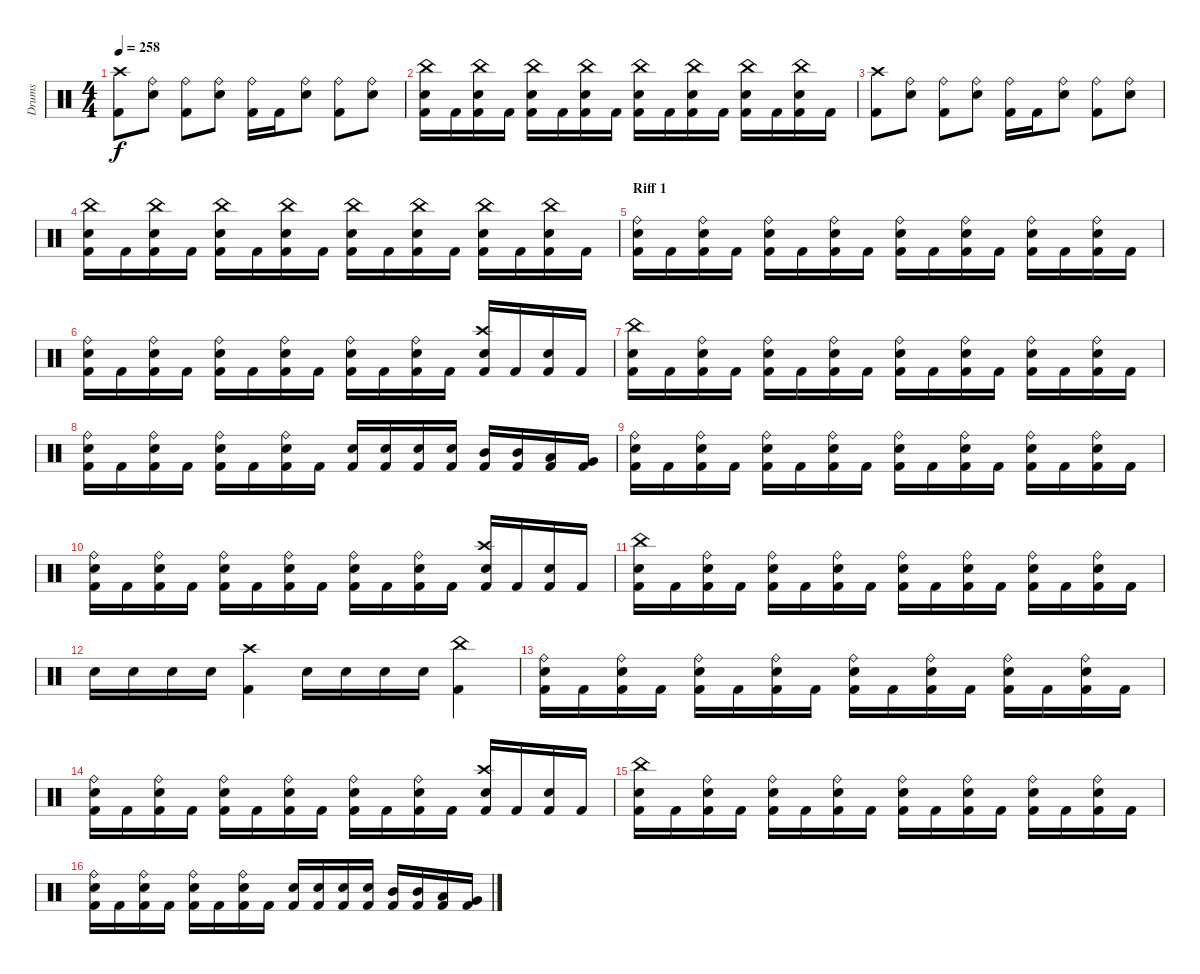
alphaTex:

\track ("Drums" "Drums") {instrument percussion}
\staff {score}
\articulation defaults
\ts (4 4)
\tempo 258
\clef neutral
\ks c
("Kick (hit) 2" "Crash high (hit)").8{dy f} ("Snare (hit) 2" "Ride (bell)").8 ("Kick (hit) 2" "Ride (bell)").8 ("Snare (hit) 2" "Ride (bell)").8 ("Kick (hit) 2" "Ride (bell)").16 "Kick (hit) 2".16 ("Snare (hit) 2" "Ride (bell)").8 ("Kick (hit) 2" "Ride (bell)").8 ("Snare (hit) 2" "Ride (bell)").8 |
("Kick (hit) 2" "Snare (hit) 2" "China (hit)").16 "Kick (hit) 2".16 ("Kick (hit) 2" "Snare (hit) 2" "China (hit)").16 "Kick (hit) 2".16 ("Kick (hit) 2" "Snare (hit) 2" "China (hit)").16 "Kick (hit) 2".16 ("Kick (hit) 2" "Snare (hit) 2" "China (hit)").16 "Kick (hit) 2".16 ("Kick (hit) 2" "Snare (hit) 2" "China (hit)").16 "Kick (hit) 2".16 ("Kick (hit) 2" "Snare (hit) 2" "China (hit)").16 "Kick (hit) 2".16 ("Kick (hit) 2" "Snare (hit) 2" "China (hit)").16 "Kick (hit) 2".16 ("Kick (hit) 2" "Snare (hit) 2" "China (hit)").16 "Kick (hit) 2".16 |
("Kick (hit) 2" "Crash high (hit)").8 ("Snare (hit) 2" "Ride (bell)").8 ("Kick (hit) 2" "Ride (bell)").8 ("Snare (hit) 2" "Ride (bell)").8 ("Kick (hit) 2" "Ride (bell)").16 "Kick (hit) 2".16 ("Snare (hit) 2" "Ride (bell)").8 ("Kick (hit) 2" "Ride (bell)").8 ("Snare (hit) 2" "Ride (bell)").8 |
("Kick (hit) 2" "Snare (hit) 2" "China (hit)").16 "Kick (hit) 2".16 ("Kick (hit) 2" "Snare (hit) 2" "China (hit)").16 "Kick (hit) 2".16 ("Kick (hit) 2" "Snare (hit) 2" "China (hit)").16 "Kick (hit) 2".16 ("Kick (hit) 2" "Snare (hit) 2" "China (hit)").16 "Kick (hit) 2".16 ("Kick (hit) 2" "Snare (hit) 2" "China (hit)").16 "Kick (hit) 2".16 ("Kick (hit) 2" "Snare (hit) 2" "China (hit)").16 "Kick (hit) 2".16 ("Kick (hit) 2" "Snare (hit) 2" "China (hit)").16 "Kick (hit) 2".16 ("Kick (hit) 2" "Snare (hit) 2" "China (hit)").16 "Kick (hit) 2".16 |
\section ("" "Riff 1")
("Kick (hit) 2" "Snare (hit) 2" "Ride (bell)").16 "Kick (hit) 2".16 ("Kick (hit) 2" "Snare (hit) 2" "Ride (bell)").16 "Kick (hit) 2".16 ("Kick (hit) 2" "Snare (hit) 2" "Ride (bell)").16 "Kick (hit) 2".16 ("Kick (hit) 2" "Snare (hit) 2" "Ride (bell)").16 "Kick (hit) 2".16 ("Kick (hit) 2" "Snare (hit) 2" "Ride (bell)").16 "Kick (hit) 2".16 ("Kick (hit) 2" "Snare (hit) 2" "Ride (bell)").16 "Kick (hit) 2".16 ("Kick (hit) 2" "Snare (hit) 2" "Ride (bell)").16 "Kick (hit) 2".16 ("Kick (hit) 2" "Snare (hit) 2" "Ride (bell)").16 "Kick (hit) 2".16 |
("Kick (hit) 2" "Snare (hit) 2" "Ride (bell)").16 "Kick (hit) 2".16 ("Kick (hit) 2" "Snare (hit) 2" "Ride (bell)").16 "Kick (hit) 2".16 ("Kick (hit) 2" "Snare (hit) 2" "Ride (bell)").16 "Kick (hit) 2".16 ("Kick (hit) 2" "Snare (hit) 2" "Ride (bell)").16 "Kick (hit) 2".16 ("Kick (hit) 2" "Snare (hit) 2" "Ride (bell)").16 "Kick (hit) 2".16 ("Kick (hit) 2" "Snare (hit) 2" "Ride (bell)").16 "Kick (hit) 2".16 ("Kick (hit) 2" "Snare (hit) 2" "Crash high (hit)").16 "Kick (hit) 2".16 ("Kick (hit) 2" "Snare (hit) 2").16 "Kick (hit) 2".16 |
("Kick (hit) 2" "Snare (hit) 2" "China (hit)").16 "Kick (hit) 2".16 ("Kick (hit) 2" "Snare (hit) 2" "Ride (bell)").16 "Kick (hit) 2".16 ("Kick (hit) 2" "Snare (hit) 2" "Ride (bell)").16 "Kick (hit) 2".16 ("Kick (hit) 2" "Snare (hit) 2" "Ride (bell)").16 "Kick (hit) 2".16 ("Kick (hit) 2" "Snare (hit) 2" "Ride (bell)").16 "Kick (hit) 2".16 ("Kick (hit) 2" "Snare (hit) 2" "Ride (bell)").16 "Kick (hit) 2".16 ("Kick (hit) 2" "Snare (hit) 2" "Ride (bell)").16 "Kick (hit) 2".16 ("Kick (hit) 2" "Snare (hit) 2" "Ride (bell)").16 "Kick (hit) 2".16 |
("Kick (hit) 2" "Snare (hit) 2" "Ride (bell)").16 "Kick (hit) 2".16 ("Kick (hit) 2" "Snare (hit) 2" "Ride (bell)").16 "Kick (hit) 2".16 ("Kick (hit) 2" "Snare (hit) 2" "Ride (bell)").16 "Kick (hit) 2".16 ("Kick (hit) 2" "Snare (hit) 2" "Ride (bell)").16 "Kick (hit) 2".16 ("Kick (hit) 2" "Snare (hit) 2").16 ("Kick (hit) 2" "Snare (hit) 2").16 ("Kick (hit) 2" "Snare (hit) 2").16 ("Kick (hit) 2" "Snare (hit) 2").16 ("Kick (hit) 2" "Mid Tom (hit)").16 ("Kick (hit) 2" "Mid Tom (hit)").16 ("Kick (hit) 2" "Low Tom (hit)").16 ("Kick (hit) 2" "Very Low Tom (hit)").16 |
("Kick (hit) 2" "Snare (hit) 2" "Ride (bell)").16 "Kick (hit) 2".16 ("Kick (hit) 2" "Snare (hit) 2" "Ride (bell)").16 "Kick (hit) 2".16 ("Kick (hit) 2" "Snare (hit) 2" "Ride (bell)").16 "Kick (hit) 2".16 ("Kick (hit) 2" "Snare (hit) 2" "Ride (bell)").16 "Kick (hit) 2".16 ("Kick (hit) 2" "Snare (hit) 2" "Ride (bell)").16 "Kick (hit) 2".16 ("Kick (hit) 2" "Snare (hit) 2" "Ride (bell)").16 "Kick (hit) 2".16 ("Kick (hit) 2" "Snare (hit) 2" "Ride (bell)").16 "Kick (hit) 2".16 ("Kick (hit) 2" "Snare (hit) 2" "Ride (bell)").16 "Kick (hit) 2".16 |
("Kick (hit) 2" "Snare (hit) 2" "Ride (bell)").16 "Kick (hit) 2".16 ("Kick (hit) 2" "Snare (hit) 2" "Ride (bell)").16 "Kick (hit) 2".16 ("Kick (hit) 2" "Snare (hit) 2" "Ride (bell)").16 "Kick (hit) 2".16 ("Kick (hit) 2" "Snare (hit) 2" "Ride (bell)").16 "Kick (hit) 2".16 ("Kick (hit) 2" "Snare (hit) 2" "Ride (bell)").16 "Kick (hit) 2".16 ("Kick (hit) 2" "Snare (hit) 2" "Ride (bell)").16 "Kick (hit) 2".16 ("Kick (hit) 2" "Snare (hit) 2" "Crash high (hit)").16 "Kick (hit) 2".16 ("Kick (hit) 2" "Snare (hit) 2").16 "Kick (hit) 2".16 |
("Kick (hit) 2" "Snare (hit) 2" "China (hit)").16 "Kick (hit) 2".16 ("Kick (hit) 2" "Snare (hit) 2" "Ride (bell)").16 "Kick (hit) 2".16 ("Kick (hit) 2" "Snare (hit) 2" "Ride (bell)").16 "Kick (hit) 2".16 ("Kick (hit) 2" "Snare (hit) 2" "Ride (bell)").16 "Kick (hit) 2".16 ("Kick (hit) 2" "Snare (hit) 2" "Ride (bell)").16 "Kick (hit) 2".16 ("Kick (hit) 2" "Snare (hit) 2" "Ride (bell)").16 "Kick (hit) 2".16 ("Kick (hit) 2" "Snare (hit) 2" "Ride (bell)").16 "Kick (hit) 2".16 ("Kick (hit) 2" "Snare (hit) 2" "Ride (bell)").16 "Kick (hit) 2".16 |
"Snare (hit) 2".16 "Snare (hit) 2".16 "Snare (hit) 2".16 "Snare (hit) 2".16 ("Kick (hit) 2" "Crash high (hit)").4 "Snare (hit) 2".16 "Snare (hit) 2".16 "Snare (hit) 2".16 "Snare (hit) 2".16 ("Kick (hit) 2" "China (hit)").4 |
("Kick (hit) 2" "Snare (hit) 2" "Ride (bell)").16 "Kick (hit) 2".16 ("Kick (hit) 2" "Snare (hit) 2" "Ride (bell)").16 "Kick (hit) 2".16 ("Kick (hit) 2" "Snare (hit) 2" "Ride (bell)").16 "Kick (hit) 2".16 ("Kick (hit) 2" "Snare (hit) 2" "Ride (bell)").16 "Kick (hit) 2".16 ("Kick (hit) 2" "Snare (hit) 2" "Ride (bell)").16 "Kick (hit) 2".16 ("Kick (hit) 2" "Snare (hit) 2" "Ride (bell)").16 "Kick (hit) 2".16 ("Kick (hit) 2" "Snare (hit) 2" "Ride (bell)").16 "Kick (hit) 2".16 ("Kick (hit) 2" "Snare (hit) 2" "Ride (bell)").16 "Kick (hit) 2".16 |
("Kick (hit) 2" "Snare (hit) 2" "Ride (bell)").16 "Kick (hit) 2".16 ("Kick (hit) 2" "Snare (hit) 2" "Ride (bell)").16 "Kick (hit) 2".16 ("Kick (hit) 2" "Snare (hit) 2" "Ride (bell)").16 "Kick (hit) 2".16 ("Kick (hit) 2" "Snare (hit) 2" "Ride (bell)").16 "Kick (hit) 2".16 ("Kick (hit) 2" "Snare (hit) 2" "Ride (bell)").16 "Kick (hit) 2".16 ("Kick (hit) 2" "Snare (hit) 2" "Ride (bell)").16 "Kick (hit) 2".16 ("Kick (hit) 2" "Snare (hit) 2" "Crash high (hit)").16 "Kick (hit) 2".16 ("Kick (hit) 2" "Snare (hit) 2").16 "Kick (hit) 2".16 |
("Kick (hit) 2" "Snare (hit) 2" "China (hit)").16 "Kick (hit) 2".16 ("Kick (hit) 2" "Snare (hit) 2" "Ride (bell)").16 "Kick (hit) 2".16 ("Kick (hit) 2" "Snare (hit) 2" "Ride (bell)").16 "Kick (hit) 2".16 ("Kick (hit) 2" "Snare (hit) 2" "Ride (bell)").16 "Kick (hit) 2".16 ("Kick (hit) 2" "Snare (hit) 2" "Ride (bell)").16 "Kick (hit) 2".16 ("Kick (hit) 2" "Snare (hit) 2" "Ride (bell)").16 "Kick (hit) 2".16 ("Kick (hit) 2" "Snare (hit) 2" "Ride (bell)").16 "Kick (hit) 2".16 ("Kick (hit) 2" "Snare (hit) 2" "Ride (bell)").16 "Kick (hit) 2".16 |
("Kick (hit) 2" "Snare (hit) 2" "Ride (bell)").16 "Kick (hit) 2".16 ("Kick (hit) 2" "Snare (hit) 2" "Ride (bell)").16 "Kick (hit) 2".16 ("Kick (hit) 2" "Snare (hit) 2" "Ride (bell)").16 "Kick (hit) 2".16 ("Kick (hit) 2" "Snare (hit) 2" "Ride (bell)").16 "Kick (hit) 2".16 ("Kick (hit) 2" "Snare (hit) 2").16 ("Kick (hit) 2" "Snare (hit) 2").16 ("Kick (hit) 2" "Snare (hit) 2").16 ("Kick (hit) 2" "Snare (hit) 2").16 ("Kick (hit) 2" "Mid Tom (hit)").16 ("Kick (hit) 2" "Mid Tom (hit)").16 ("Kick (hit) 2" "Low Tom (hit)").16 ("Kick (hit) 2" "Very Low Tom (hit)").16
